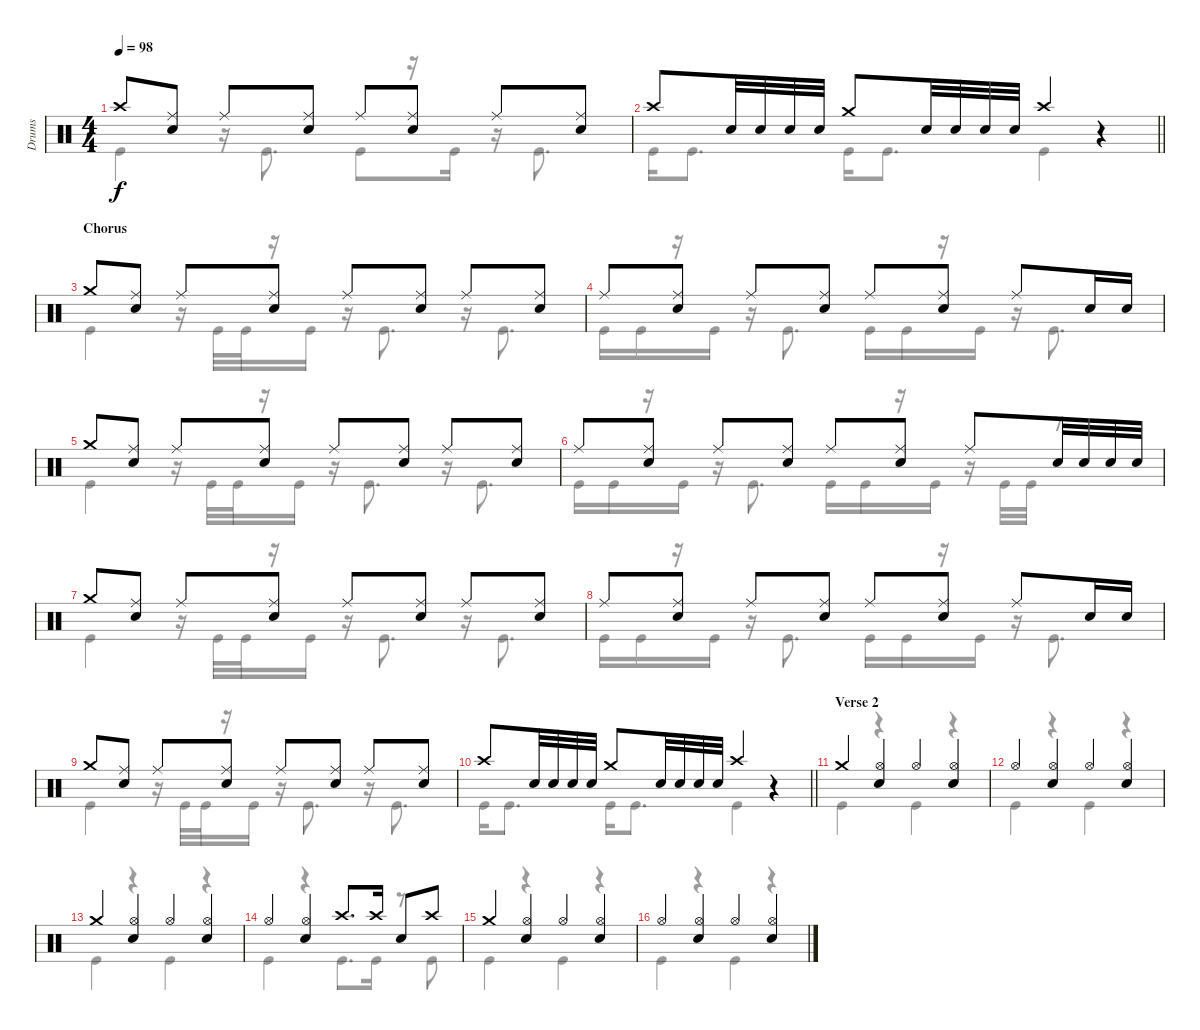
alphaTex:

\track ("Drums" "Drums") {instrument percussion}
\staff {score}
\articulation defaults
\voice
\ts (4 4)
\tempo 98
\clef neutral
\ks c "Crash high (hit)".8{dy f}
("Ride (middle)" "Electric Snare (hit)").8 "Ride (middle)".8 ("Ride (middle)" "Electric Snare (hit)").8 "Ride (middle)".8 ("Ride (middle)" "Electric Snare (hit)").8 "Ride (middle)".8 ("Ride (middle)" "Electric Snare (hit)").8 |
\barLineRight lightlight "Crash high (hit)".8 "Electric Snare (hit)".32 "Electric Snare (hit)".32 "Electric Snare (hit)".32 "Electric Snare (hit)".32 "Crash medium (hit)".8 "Electric Snare (hit)".32 "Electric Snare (hit)".32 "Electric Snare (hit)".32 "Electric Snare (hit)".32 "Crash high (hit)".4
r.4 |
\section ("" "Chorus")
"Crash medium (hit)".8 ("Ride (middle)" "Electric Snare (hit)").8 "Ride (middle)".8 ("Ride (middle)" "Electric Snare (hit)").8 "Ride (middle)".8 ("Ride (middle)" "Electric Snare (hit)").8 "Ride (middle)".8 ("Ride (middle)" "Electric Snare (hit)").8 |
"Ride (middle)".8 ("Ride (middle)" "Electric Snare (hit)").8 "Ride (middle)".8 ("Ride (middle)" "Electric Snare (hit)").8 "Ride (middle)".8 ("Ride (middle)" "Electric Snare (hit)").8 "Ride (middle)".8 "Electric Snare (hit)".16 "Electric Snare (hit)".16 |
"Crash medium (hit)".8 ("Ride (middle)" "Electric Snare (hit)").8 "Ride (middle)".8 ("Ride (middle)" "Electric Snare (hit)").8 "Ride (middle)".8 ("Ride (middle)" "Electric Snare (hit)").8 "Ride (middle)".8 ("Ride (middle)" "Electric Snare (hit)").8 |
"Ride (middle)".8 ("Ride (middle)" "Electric Snare (hit)").8 "Ride (middle)".8 ("Ride (middle)" "Electric Snare (hit)").8 "Ride (middle)".8 ("Ride (middle)" "Electric Snare (hit)").8 "Ride (middle)".8 "Electric Snare (hit)".32 "Electric Snare (hit)".32 "Electric Snare (hit)".32 "Electric Snare (hit)".32 |
"Crash medium (hit)".8 ("Ride (middle)" "Electric Snare (hit)").8 "Ride (middle)".8 ("Ride (middle)" "Electric Snare (hit)").8 "Ride (middle)".8 ("Ride (middle)" "Electric Snare (hit)").8 "Ride (middle)".8 ("Ride (middle)" "Electric Snare (hit)").8 |
"Ride (middle)".8 ("Ride (middle)" "Electric Snare (hit)").8 "Ride (middle)".8 ("Ride (middle)" "Electric Snare (hit)").8 "Ride (middle)".8 ("Ride (middle)" "Electric Snare (hit)").8 "Ride (middle)".8 "Electric Snare (hit)".16 "Electric Snare (hit)".16 |
"Crash medium (hit)".8 ("Ride (middle)" "Electric Snare (hit)").8 "Ride (middle)".8 ("Ride (middle)" "Electric Snare (hit)").8 "Ride (middle)".8 ("Ride (middle)" "Electric Snare (hit)").8 "Ride (middle)".8 ("Ride (middle)" "Electric Snare (hit)").8 |
\barLineRight lightlight "Crash high (hit)".8 "Electric Snare (hit)".32 "Electric Snare (hit)".32 "Electric Snare (hit)".32 "Electric Snare (hit)".32 "Crash medium (hit)".8 "Electric Snare (hit)".32 "Electric Snare (hit)".32 "Electric Snare (hit)".32 "Electric Snare (hit)".32 "Crash high (hit)".4
r.4 |
\section ("" "Verse 2")
"Crash medium (hit)".4 ("Hi-Hat (open)" "Electric Snare (hit)").4 "Hi-Hat (open)".4 ("Hi-Hat (open)" "Electric Snare (hit)").4 |
"Hi-Hat (open)".4 ("Hi-Hat (open)" "Electric Snare (hit)").4 "Hi-Hat (open)".4 ("Hi-Hat (open)" "Electric Snare (hit)").4 |
"Crash medium (hit)".4 ("Hi-Hat (open)" "Electric Snare (hit)").4 "Hi-Hat (open)".4 ("Hi-Hat (open)" "Electric Snare (hit)").4 |
"Hi-Hat (open)".4 ("Hi-Hat (open)" "Electric Snare (hit)").4 "Crash high (hit)".8{d} "Crash high (hit)".16 "Electric Snare (hit)".8 "Crash high (hit)".8 |
"Crash medium (hit)".4 ("Hi-Hat (open)" "Electric Snare (hit)").4 "Hi-Hat (open)".4 ("Hi-Hat (open)" "Electric Snare (hit)").4 |
"Hi-Hat (open)".4 ("Hi-Hat (open)" "Electric Snare (hit)").4 "Hi-Hat (open)".4 ("Hi-Hat (open)" "Electric Snare (hit)").4
\voice
\clef neutral
\ottava regular
\simile none
\ks c "Kick (hit)".4{dy f}
r.16 "Kick (hit)".8{d} "Kick (hit)".8 r.16 "Kick (hit)".16 r.16 "Kick (hit)".8{d} |
\barLineRight lightlight "Kick (hit)".16 "Kick (hit)".8{d} "Kick (hit)".16 "Kick (hit)".8{d} "Kick (hit)".4
r.4 |
"Kick (hit)".4 r.16 "Kick (hit)".32 "Kick (hit)".32 r.16 "Kick (hit)".16 r.16 "Kick (hit)".8{d} r.16 "Kick (hit)".8{d} |
"Kick (hit)".16 "Kick (hit)".16 r.16 "Kick (hit)".16 r.16 "Kick (hit)".8{d} "Kick (hit)".16 "Kick (hit)".16 r.16 "Kick (hit)".16 r.16 "Kick (hit)".8{d} |
"Kick (hit)".4 r.16 "Kick (hit)".32 "Kick (hit)".32 r.16 "Kick (hit)".16 r.16 "Kick (hit)".8{d} r.16 "Kick (hit)".8{d} |
"Kick (hit)".16 "Kick (hit)".16 r.16 "Kick (hit)".16 r.16 "Kick (hit)".8{d} "Kick (hit)".16 "Kick (hit)".16 r.16 "Kick (hit)".16 r.16 "Kick (hit)".32 "Kick (hit)".32 r.8 |
"Kick (hit)".4 r.16 "Kick (hit)".32 "Kick (hit)".32 r.16 "Kick (hit)".16 r.16 "Kick (hit)".8{d} r.16 "Kick (hit)".8{d} |
"Kick (hit)".16 "Kick (hit)".16 r.16 "Kick (hit)".16 r.16 "Kick (hit)".8{d} "Kick (hit)".16 "Kick (hit)".16 r.16 "Kick (hit)".16 r.16 "Kick (hit)".8{d} |
"Kick (hit)".4 r.16 "Kick (hit)".32 "Kick (hit)".32 r.16 "Kick (hit)".16 r.16 "Kick (hit)".8{d} r.16 "Kick (hit)".8{d} |
\barLineRight lightlight "Kick (hit)".16 "Kick (hit)".8{d} "Kick (hit)".16 "Kick (hit)".8{d} "Kick (hit)".4
r.4 |
"Kick (hit)".4 r.4 "Kick (hit)".4 r.4 |
"Kick (hit)".4 r.4 "Kick (hit)".4 r.4 |
"Kick (hit)".4 r.4 "Kick (hit)".4 r.4 |
"Kick (hit)".4 r.4 "Kick (hit)".8{d} "Kick (hit)".16 r.8 "Kick (hit)".8 |
"Kick (hit)".4 r.4 "Kick (hit)".4 r.4 |
"Kick (hit)".4 r.4 "Kick (hit)".4 r.4
